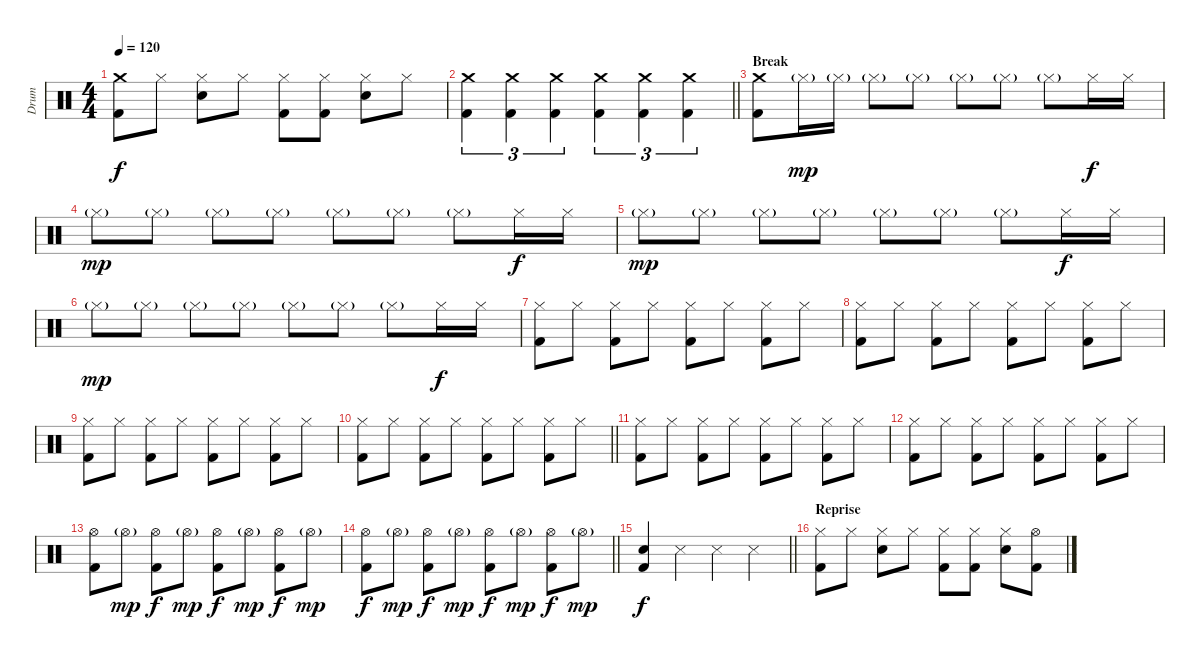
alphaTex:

\track ("Drum" "Drum") {instrument percussion}
\staff {score}
\articulation defaults
\ts (4 4)
\tempo 120
\clef neutral
\ks c
("Crash medium (hit)" "Kick (hit) 2").8{dy f} "Hi-Hat (closed)".8 ("Hi-Hat (closed)" "Electric Snare (hit)").8 "Hi-Hat (closed)".8 ("Hi-Hat (closed)" "Kick (hit) 2").8 ("Hi-Hat (closed)" "Kick (hit) 2").8 ("Hi-Hat (closed)" "Electric Snare (hit)").8 "Hi-Hat (closed)".8 |
\barLineRight lightlight
("Crash medium (hit)" "Kick (hit) 2").4{tu (3 2)} ("Crash medium (hit)" "Kick (hit) 2").4{tu (3 2)} ("Crash medium (hit)" "Kick (hit) 2").4{tu (3 2)} ("Crash medium (hit)" "Kick (hit) 2").4{tu (3 2)} ("Crash medium (hit)" "Kick (hit) 2").4{tu (3 2)} ("Crash medium (hit)" "Kick (hit) 2").4{tu (3 2)} |
\section ("" "Break")
("Crash medium (hit)" "Kick (hit) 2").8 "Hi-Hat (closed)"{g}.16{dy mp} "Hi-Hat (closed)"{g}.16 "Hi-Hat (closed)"{g}.8 "Hi-Hat (closed)"{g}.8 "Hi-Hat (closed)"{g}.8 "Hi-Hat (closed)"{g}.8 "Hi-Hat (closed)"{g}.8 "Hi-Hat (closed)".16{dy f} "Hi-Hat (closed)".16 |
"Hi-Hat (closed)"{g}.8{dy mp} "Hi-Hat (closed)"{g}.8 "Hi-Hat (closed)"{g}.8 "Hi-Hat (closed)"{g}.8 "Hi-Hat (closed)"{g}.8 "Hi-Hat (closed)"{g}.8 "Hi-Hat (closed)"{g}.8 "Hi-Hat (closed)".16{dy f} "Hi-Hat (closed)".16 |
"Hi-Hat (closed)"{g}.8{dy mp} "Hi-Hat (closed)"{g}.8 "Hi-Hat (closed)"{g}.8 "Hi-Hat (closed)"{g}.8 "Hi-Hat (closed)"{g}.8 "Hi-Hat (closed)"{g}.8 "Hi-Hat (closed)"{g}.8 "Hi-Hat (closed)".16{dy f} "Hi-Hat (closed)".16 |
"Hi-Hat (closed)"{g}.8{dy mp} "Hi-Hat (closed)"{g}.8 "Hi-Hat (closed)"{g}.8 "Hi-Hat (closed)"{g}.8 "Hi-Hat (closed)"{g}.8 "Hi-Hat (closed)"{g}.8 "Hi-Hat (closed)"{g}.8 "Hi-Hat (closed)".16{dy f} "Hi-Hat (closed)".16 |
("Hi-Hat (closed)" "Kick (hit) 2").8 "Hi-Hat (closed)".8 ("Hi-Hat (closed)" "Kick (hit) 2").8 "Hi-Hat (closed)".8 ("Hi-Hat (closed)" "Kick (hit) 2").8 "Hi-Hat (closed)".8 ("Hi-Hat (closed)" "Kick (hit) 2").8 "Hi-Hat (closed)".8 |
("Hi-Hat (closed)" "Kick (hit) 2").8 "Hi-Hat (closed)".8 ("Hi-Hat (closed)" "Kick (hit) 2").8 "Hi-Hat (closed)".8 ("Hi-Hat (closed)" "Kick (hit) 2").8 "Hi-Hat (closed)".8 ("Hi-Hat (closed)" "Kick (hit) 2").8 "Hi-Hat (closed)".8 |
("Hi-Hat (closed)" "Kick (hit) 2").8 "Hi-Hat (closed)".8 ("Hi-Hat (closed)" "Kick (hit) 2").8 "Hi-Hat (closed)".8 ("Hi-Hat (closed)" "Kick (hit) 2").8 "Hi-Hat (closed)".8 ("Hi-Hat (closed)" "Kick (hit) 2").8 "Hi-Hat (closed)".8 |
\barLineRight lightlight
("Hi-Hat (closed)" "Kick (hit) 2").8 "Hi-Hat (closed)".8 ("Hi-Hat (closed)" "Kick (hit) 2").8 "Hi-Hat (closed)".8 ("Hi-Hat (closed)" "Kick (hit) 2").8 "Hi-Hat (closed)".8 ("Hi-Hat (closed)" "Kick (hit) 2").8 "Hi-Hat (closed)".8 |
("Hi-Hat (closed)" "Kick (hit) 2").8 "Hi-Hat (closed)".8 ("Hi-Hat (closed)" "Kick (hit) 2").8 "Hi-Hat (closed)".8 ("Hi-Hat (closed)" "Kick (hit) 2").8 "Hi-Hat (closed)".8 ("Hi-Hat (closed)" "Kick (hit) 2").8 "Hi-Hat (closed)".8 |
("Hi-Hat (closed)" "Kick (hit) 2").8 "Hi-Hat (closed)".8 ("Hi-Hat (closed)" "Kick (hit) 2").8 "Hi-Hat (closed)".8 ("Hi-Hat (closed)" "Kick (hit) 2").8 "Hi-Hat (closed)".8 ("Hi-Hat (closed)" "Kick (hit) 2").8 "Hi-Hat (closed)".8 |
("Hi-Hat (open)" "Kick (hit) 2").8 "Hi-Hat (open)"{g}.8{dy mp} ("Hi-Hat (open)" "Kick (hit) 2").8{dy f} "Hi-Hat (open)"{g}.8{dy mp} ("Hi-Hat (open)" "Kick (hit) 2").8{dy f} "Hi-Hat (open)"{g}.8{dy mp} ("Hi-Hat (open)" "Kick (hit) 2").8{dy f} "Hi-Hat (open)"{g}.8{dy mp} |
\barLineRight lightlight
("Hi-Hat (open)" "Kick (hit) 2").8{dy f} "Hi-Hat (open)"{g}.8{dy mp} ("Hi-Hat (open)" "Kick (hit) 2").8{dy f} "Hi-Hat (open)"{g}.8{dy mp} ("Hi-Hat (open)" "Kick (hit) 2").8{dy f} "Hi-Hat (open)"{g}.8{dy mp} ("Hi-Hat (open)" "Kick (hit) 2").8{dy f} "Hi-Hat (open)"{g}.8{dy mp} |
\barLineRight lightlight
("Electric Snare (hit)" "Kick (hit) 2").4{dy f} "Metronome (hit)".4 "Metronome (hit)".4 "Metronome (hit)".4 |
\section ("" "Reprise")
("Hi-Hat (closed)" "Kick (hit) 2").8 "Hi-Hat (closed)".8 ("Hi-Hat (closed)" "Electric Snare (hit)").8 "Hi-Hat (closed)".8 ("Hi-Hat (closed)" "Kick (hit) 2").8 ("Hi-Hat (closed)" "Kick (hit) 2").8 ("Hi-Hat (closed)" "Electric Snare (hit)").8 ("Hi-Hat (open)" "Kick (hit) 2").8
